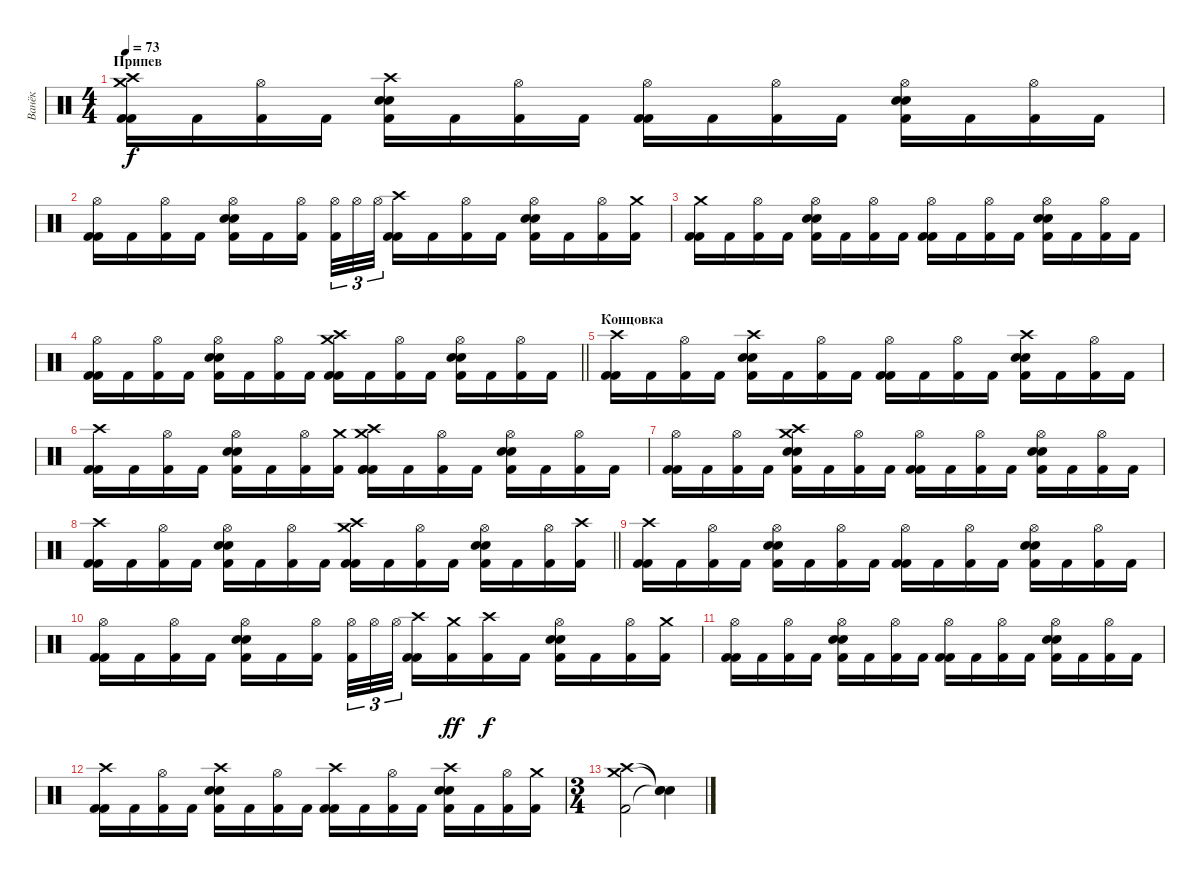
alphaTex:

\track ("Ванёк" "Ванёк") {instrument percussion}
\staff {score}
\articulation defaults
\ts (4 4)
\section ("" "Припев")
\tempo 73
\clef neutral
\ks c
("Crash high (hit)" "Crash medium (hit)" "Kick (hit) 2" "Kick (hit) 2").16{dy f} "Kick (hit) 2".16 ("Hi-Hat (open)" "Kick (hit) 2").16 "Kick (hit) 2".16 ("Crash high (hit)" "Snare (hit) 2" "Snare (hit) 2" "Kick (hit) 2").16 "Kick (hit) 2".16 ("Hi-Hat (open)" "Kick (hit) 2").16 "Kick (hit) 2".16 ("Hi-Hat (open)" "Kick (hit) 2" "Kick (hit) 2").16 "Kick (hit) 2".16 ("Hi-Hat (open)" "Kick (hit) 2").16 "Kick (hit) 2".16 ("Hi-Hat (open)" "Snare (hit) 2" "Snare (hit) 2" "Kick (hit) 2").16 "Kick (hit) 2".16 ("Hi-Hat (open)" "Kick (hit) 2").16 "Kick (hit) 2".16 |
("Hi-Hat (open)" "Kick (hit) 2" "Kick (hit) 2").16 "Kick (hit) 2".16 ("Hi-Hat (open)" "Kick (hit) 2").16 "Kick (hit) 2".16 ("Hi-Hat (open)" "Snare (hit) 2" "Snare (hit) 2" "Kick (hit) 2").16 "Kick (hit) 2".16 ("Hi-Hat (open)" "Kick (hit) 2").16{beam splitsecondary} ("Hi-Hat (open)" "Kick (hit) 2").32{tu (3 2)} "Hi-Hat (open)".32{tu (3 2)} "Hi-Hat (open)".32{tu (3 2)} ("Crash high (hit)" "Kick (hit) 2" "Kick (hit) 2").16 "Kick (hit) 2".16 ("Hi-Hat (open)" "Kick (hit) 2").16 "Kick (hit) 2".16 ("Hi-Hat (open)" "Snare (hit) 2" "Snare (hit) 2" "Kick (hit) 2").16 "Kick (hit) 2".16 ("Hi-Hat (open)" "Kick (hit) 2").16 ("Crash medium (hit)" "Kick (hit) 2").16 |
("Crash medium (hit)" "Kick (hit) 2" "Kick (hit) 2").16 "Kick (hit) 2".16 ("Hi-Hat (open)" "Kick (hit) 2").16 "Kick (hit) 2".16 ("Hi-Hat (open)" "Snare (hit) 2" "Snare (hit) 2" "Kick (hit) 2").16 "Kick (hit) 2".16 ("Hi-Hat (open)" "Kick (hit) 2").16 "Kick (hit) 2".16 ("Hi-Hat (open)" "Kick (hit) 2" "Kick (hit) 2").16 "Kick (hit) 2".16 ("Hi-Hat (open)" "Kick (hit) 2").16 "Kick (hit) 2".16 ("Hi-Hat (open)" "Snare (hit) 2" "Snare (hit) 2" "Kick (hit) 2").16 "Kick (hit) 2".16 ("Hi-Hat (open)" "Kick (hit) 2").16 "Kick (hit) 2".16 |
\barLineRight lightlight
("Hi-Hat (open)" "Kick (hit) 2" "Kick (hit) 2").16 "Kick (hit) 2".16 ("Hi-Hat (open)" "Kick (hit) 2").16 "Kick (hit) 2".16 ("Hi-Hat (open)" "Snare (hit) 2" "Snare (hit) 2" "Kick (hit) 2").16 "Kick (hit) 2".16 ("Hi-Hat (open)" "Kick (hit) 2").16 "Kick (hit) 2".16 ("Crash high (hit)" "Crash medium (hit)" "Kick (hit) 2" "Kick (hit) 2").16 "Kick (hit) 2".16 ("Hi-Hat (open)" "Kick (hit) 2").16 "Kick (hit) 2".16 ("Hi-Hat (open)" "Snare (hit) 2" "Snare (hit) 2" "Kick (hit) 2").16 "Kick (hit) 2".16 ("Hi-Hat (open)" "Kick (hit) 2").16 "Kick (hit) 2".16 |
\section ("" "Концовка")
("Crash high (hit)" "Kick (hit) 2" "Kick (hit) 2").16 "Kick (hit) 2".16 ("Hi-Hat (open)" "Kick (hit) 2").16 "Kick (hit) 2".16 ("Crash high (hit)" "Snare (hit) 2" "Snare (hit) 2" "Kick (hit) 2").16 "Kick (hit) 2".16 ("Hi-Hat (open)" "Kick (hit) 2").16 "Kick (hit) 2".16 ("Hi-Hat (open)" "Kick (hit) 2" "Kick (hit) 2").16 "Kick (hit) 2".16 ("Hi-Hat (open)" "Kick (hit) 2").16 "Kick (hit) 2".16 ("Crash high (hit)" "Snare (hit) 2" "Snare (hit) 2" "Kick (hit) 2").16 "Kick (hit) 2".16 ("Hi-Hat (open)" "Kick (hit) 2").16 "Kick (hit) 2".16 |
("Crash high (hit)" "Kick (hit) 2" "Kick (hit) 2").16 "Kick (hit) 2".16 ("Hi-Hat (open)" "Kick (hit) 2").16 "Kick (hit) 2".16 ("Hi-Hat (open)" "Snare (hit) 2" "Snare (hit) 2" "Kick (hit) 2").16 "Kick (hit) 2".16 ("Hi-Hat (open)" "Kick (hit) 2").16 ("Crash medium (hit)" "Kick (hit) 2").16 ("Crash high (hit)" "Crash medium (hit)" "Kick (hit) 2" "Kick (hit) 2" "Kick (hit) 2").16 "Kick (hit) 2".16 ("Hi-Hat (open)" "Kick (hit) 2").16 "Kick (hit) 2".16 ("Hi-Hat (open)" "Snare (hit) 2" "Snare (hit) 2" "Kick (hit) 2").16 "Kick (hit) 2".16 ("Hi-Hat (open)" "Kick (hit) 2").16 "Kick (hit) 2".16 |
("Hi-Hat (open)" "Kick (hit) 2" "Kick (hit) 2").16 "Kick (hit) 2".16 ("Hi-Hat (open)" "Kick (hit) 2").16 "Kick (hit) 2".16 ("Crash high (hit)" "Crash medium (hit)" "Snare (hit) 2" "Snare (hit) 2" "Kick (hit) 2").16 "Kick (hit) 2".16 ("Hi-Hat (open)" "Kick (hit) 2").16 "Kick (hit) 2".16 ("Hi-Hat (open)" "Kick (hit) 2" "Kick (hit) 2").16 "Kick (hit) 2".16 ("Hi-Hat (open)" "Kick (hit) 2").16 "Kick (hit) 2".16 ("Hi-Hat (open)" "Snare (hit) 2" "Snare (hit) 2" "Kick (hit) 2").16 "Kick (hit) 2".16 ("Hi-Hat (open)" "Kick (hit) 2").16 "Kick (hit) 2".16 |
\barLineRight lightlight
("Crash high (hit)" "Kick (hit) 2" "Kick (hit) 2").16 "Kick (hit) 2".16 ("Hi-Hat (open)" "Kick (hit) 2").16 "Kick (hit) 2".16 ("Hi-Hat (open)" "Snare (hit) 2" "Snare (hit) 2" "Kick (hit) 2").16 "Kick (hit) 2".16 ("Hi-Hat (open)" "Kick (hit) 2").16 "Kick (hit) 2".16 ("Crash high (hit)" "Crash medium (hit)" "Kick (hit) 2" "Kick (hit) 2").16 "Kick (hit) 2".16 ("Hi-Hat (open)" "Kick (hit) 2").16 "Kick (hit) 2".16 ("Hi-Hat (open)" "Snare (hit) 2" "Snare (hit) 2" "Kick (hit) 2").16 "Kick (hit) 2".16 ("Hi-Hat (open)" "Kick (hit) 2").16 ("Crash high (hit)" "Kick (hit) 2").16 |
("Crash high (hit)" "Kick (hit) 2" "Kick (hit) 2").16 "Kick (hit) 2".16 ("Hi-Hat (open)" "Kick (hit) 2").16 "Kick (hit) 2".16 ("Hi-Hat (open)" "Snare (hit) 2" "Snare (hit) 2" "Kick (hit) 2").16 "Kick (hit) 2".16 ("Hi-Hat (open)" "Kick (hit) 2").16 "Kick (hit) 2".16 ("Hi-Hat (open)" "Kick (hit) 2" "Kick (hit) 2").16 "Kick (hit) 2".16 ("Hi-Hat (open)" "Kick (hit) 2").16 "Kick (hit) 2".16 ("Hi-Hat (open)" "Snare (hit) 2" "Snare (hit) 2" "Kick (hit) 2").16 "Kick (hit) 2".16 ("Hi-Hat (open)" "Kick (hit) 2").16 "Kick (hit) 2".16 |
("Hi-Hat (open)" "Kick (hit) 2" "Kick (hit) 2").16 "Kick (hit) 2".16 ("Hi-Hat (open)" "Kick (hit) 2").16 "Kick (hit) 2".16 ("Hi-Hat (open)" "Snare (hit) 2" "Snare (hit) 2" "Kick (hit) 2").16 "Kick (hit) 2".16 ("Hi-Hat (open)" "Kick (hit) 2").16{beam splitsecondary} ("Hi-Hat (open)" "Kick (hit) 2").32{tu (3 2)} "Hi-Hat (open)".32{tu (3 2)} "Hi-Hat (open)".32{tu (3 2)} ("Crash high (hit)" "Kick (hit) 2" "Kick (hit) 2").16 ("Crash medium (hit)" "Kick (hit) 2").16{dy ff} ("Crash high (hit)" "Kick (hit) 2").16{dy f} "Kick (hit) 2".16 ("Hi-Hat (open)" "Snare (hit) 2" "Snare (hit) 2" "Kick (hit) 2").16 "Kick (hit) 2".16 ("Hi-Hat (open)" "Kick (hit) 2").16 ("Crash medium (hit)" "Kick (hit) 2").16 |
("Hi-Hat (open)" "Kick (hit) 2" "Kick (hit) 2").16 "Kick (hit) 2".16 ("Hi-Hat (open)" "Kick (hit) 2").16 "Kick (hit) 2".16 ("Hi-Hat (open)" "Snare (hit) 2" "Snare (hit) 2" "Kick (hit) 2").16 "Kick (hit) 2".16 ("Hi-Hat (open)" "Kick (hit) 2").16 "Kick (hit) 2".16 ("Hi-Hat (open)" "Kick (hit) 2" "Kick (hit) 2").16 "Kick (hit) 2".16 ("Hi-Hat (open)" "Kick (hit) 2").16 "Kick (hit) 2".16 ("Hi-Hat (open)" "Snare (hit) 2" "Snare (hit) 2" "Kick (hit) 2").16 "Kick (hit) 2".16 ("Hi-Hat (open)" "Kick (hit) 2").16 "Kick (hit) 2".16 |
("Crash high (hit)" "Kick (hit) 2" "Kick (hit) 2").16 "Kick (hit) 2".16 ("Hi-Hat (open)" "Kick (hit) 2").16 "Kick (hit) 2".16 ("Crash high (hit)" "Snare (hit) 2" "Snare (hit) 2" "Kick (hit) 2").16 "Kick (hit) 2".16 ("Hi-Hat (open)" "Kick (hit) 2").16 "Kick (hit) 2".16 ("Crash high (hit)" "Kick (hit) 2" "Kick (hit) 2").16 "Kick (hit) 2".16 ("Hi-Hat (open)" "Kick (hit) 2").16 "Kick (hit) 2".16 ("Crash high (hit)" "Snare (hit) 2" "Snare (hit) 2" "Kick (hit) 2").16 "Kick (hit) 2".16 ("Hi-Hat (open)" "Kick (hit) 2").16 ("Crash medium (hit)" "Kick (hit) 2").16 |
\ts (3 4)
("Crash high (hit)" "Crash medium (hit)" "Kick (hit) 2").2 ("Snare (hit)"{t} "Snare (hit)"{t} "Snare (hit)"{t}).4
